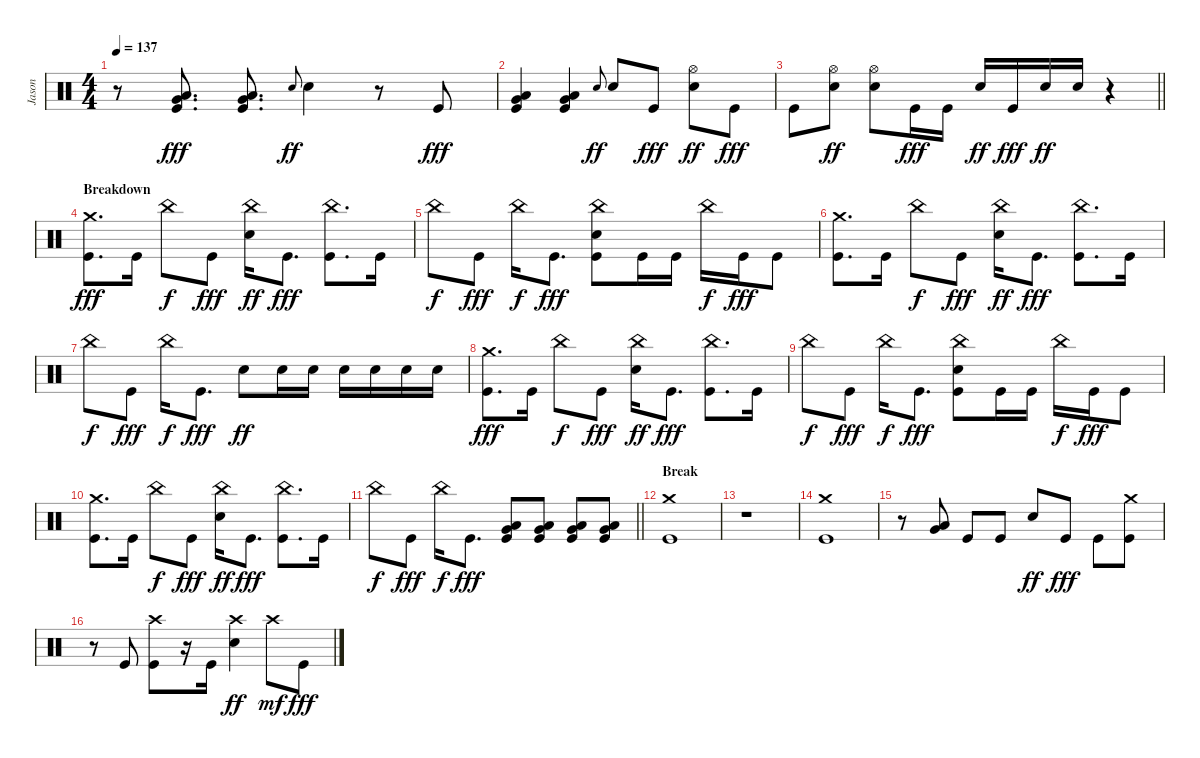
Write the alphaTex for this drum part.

\track ("Jason" "Jason") {instrument percussion}
\staff {score}
\articulation defaults
\ts (4 4)
\tempo 137
\clef neutral
\ks c
r.8{dy ff} ("Very Low Tom (hit)" "Low Floor Tom (hit)" "Kick (hit)").8{d dy fff} ("Very Low Tom (hit)" "Low Floor Tom (hit)" "Kick (hit)").8{d} "Electric Snare (hit)".8{gr onbeat dy ff} "Electric Snare (hit)".4 r.8 "Kick (hit)".8{dy fff} |
("Very Low Tom (hit)" "Low Floor Tom (hit)" "Kick (hit)").4 ("Very Low Tom (hit)" "Low Floor Tom (hit)" "Kick (hit)").4 "Electric Snare (hit)".8{gr onbeat dy ff} "Electric Snare (hit)".8 "Kick (hit)".8{dy fff} ("Hi-Hat (open)" "Electric Snare (hit)").8{dy ff} "Kick (hit)".8{dy fff} |
\barLineRight lightlight "Kick (hit)".8
("Hi-Hat (open)" "Electric Snare (hit)").8{dy ff} ("Hi-Hat (open)" "Electric Snare (hit)").8 "Kick (hit)".16{dy fff} "Kick (hit)".16 "Electric Snare (hit)".16{dy ff} "Kick (hit)".16{dy fff} "Electric Snare (hit)".16{dy ff} "Electric Snare (hit)".16 r.4 |
\section ("" "Breakdown")
("Crash medium (hit)" "Kick (hit)").8{d dy fff} "Kick (hit)".16 "China (hit)".8{dy f} "Kick (hit)".8{dy fff} ("China (hit)" "Electric Snare (hit)").16{dy ff} "Kick (hit)".8{d dy fff} ("China (hit)" "Kick (hit)").8{d} "Kick (hit)".16 |
"China (hit)".8{dy f} "Kick (hit)".8{dy fff} "China (hit)".16{dy f} "Kick (hit)".8{d dy fff} ("China (hit)" "Electric Snare (hit)" "Kick (hit)").8 "Kick (hit)".16 "Kick (hit)".16 "China (hit)".16{dy f} "Kick (hit)".16{dy fff} "Kick (hit)".8 |
("Crash medium (hit)" "Kick (hit)").8{d} "Kick (hit)".16 "China (hit)".8{dy f} "Kick (hit)".8{dy fff} ("China (hit)" "Electric Snare (hit)").16{dy ff} "Kick (hit)".8{d dy fff} ("China (hit)" "Kick (hit)").8{d} "Kick (hit)".16 |
"China (hit)".8{dy f} "Kick (hit)".8{dy fff} "China (hit)".16{dy f} "Kick (hit)".8{d dy fff} "Electric Snare (hit)".8{dy ff} "Electric Snare (hit)".16 "Electric Snare (hit)".16 "Electric Snare (hit)".16 "Electric Snare (hit)".16 "Electric Snare (hit)".16 "Electric Snare (hit)".16 |
("Crash medium (hit)" "Kick (hit)").8{d dy fff} "Kick (hit)".16 "China (hit)".8{dy f} "Kick (hit)".8{dy fff} ("China (hit)" "Electric Snare (hit)").16{dy ff} "Kick (hit)".8{d dy fff} ("China (hit)" "Kick (hit)").8{d} "Kick (hit)".16 |
"China (hit)".8{dy f} "Kick (hit)".8{dy fff} "China (hit)".16{dy f} "Kick (hit)".8{d dy fff} ("China (hit)" "Electric Snare (hit)" "Kick (hit)").8 "Kick (hit)".16 "Kick (hit)".16 "China (hit)".16{dy f} "Kick (hit)".16{dy fff} "Kick (hit)".8 |
("Crash medium (hit)" "Kick (hit)").8{d} "Kick (hit)".16 "China (hit)".8{dy f} "Kick (hit)".8{dy fff} ("China (hit)" "Electric Snare (hit)").16{dy ff} "Kick (hit)".8{d dy fff} ("China (hit)" "Kick (hit)").8{d} "Kick (hit)".16 |
\barLineRight lightlight "China (hit)".8{dy f} "Kick (hit)".8{dy fff} "China (hit)".16{dy f} "Kick (hit)".8{d dy fff}
("Very Low Tom (hit)" "Low Floor Tom (hit)" "Kick (hit)").8 ("Very Low Tom (hit)" "Low Floor Tom (hit)" "Kick (hit)").8 ("Very Low Tom (hit)" "Low Floor Tom (hit)" "Kick (hit)").8 ("Very Low Tom (hit)" "Low Floor Tom (hit)" "Kick (hit)").8 |
\section ("" "Break")
("Crash medium (hit)" "Kick (hit)").1 |
r.1 |
("Crash medium (hit)" "Kick (hit)").1 |
r.8 ("Very Low Tom (hit)" "Low Floor Tom (hit)").8 "Kick (hit)".8 "Kick (hit)".8 "Electric Snare (hit)".8{dy ff} "Kick (hit)".8{dy fff} "Kick (hit)".8 ("Crash medium (hit)" "Kick (hit)").8 |
r.8 "Kick (hit)".8 ("Crash high (hit)" "Kick (hit)").8 r.16 "Kick (hit)".16 ("Crash high (hit)" "Electric Snare (hit)").4{dy ff} "Crash high (hit)".8{dy mf} "Kick (hit)".8{dy fff}
